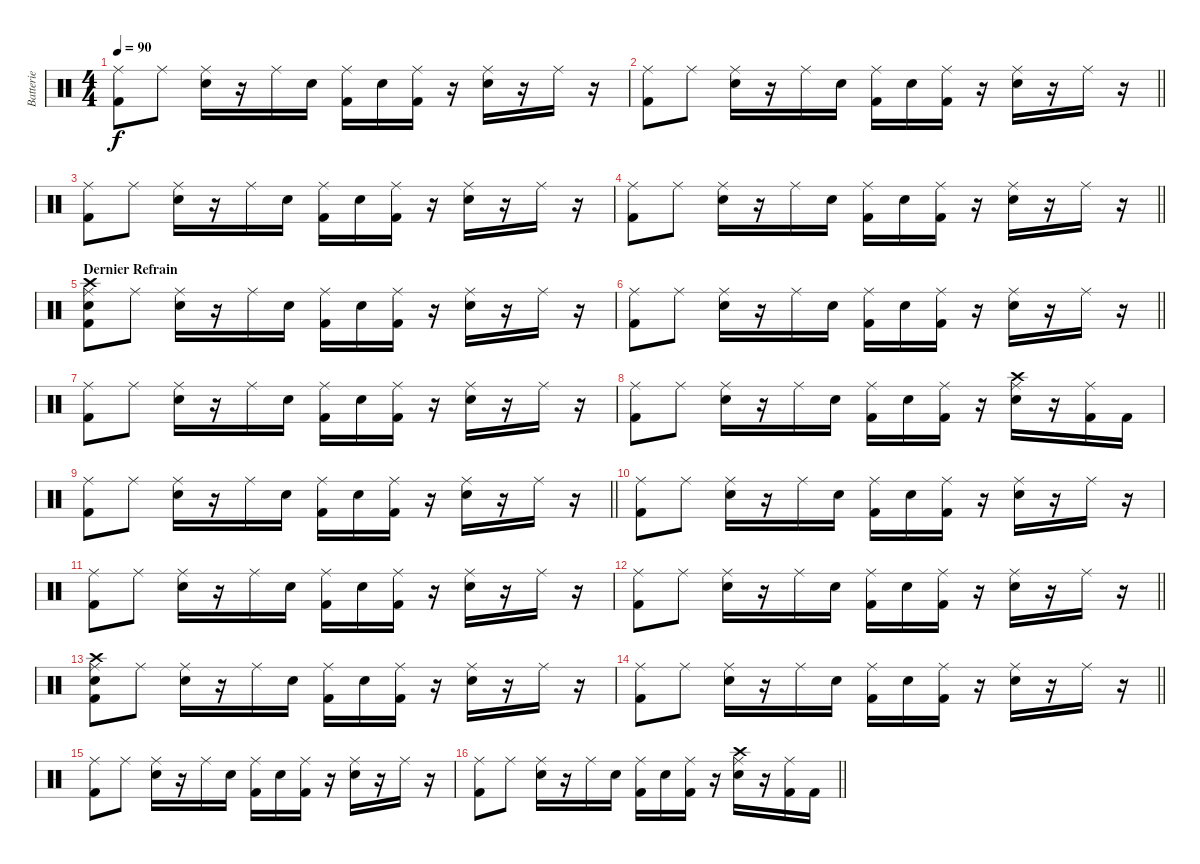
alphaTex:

\track ("Batterie" "Batterie") {instrument percussion}
\staff {score}
\articulation defaults
\ts (4 4)
\tempo 90
\clef neutral
\ks c
("Ride (middle)" "Kick (hit) 2").8{dy f} "Ride (middle)".8 ("Ride (middle)" "Electric Snare (hit)").16 r.16 "Ride (middle)".16 "Electric Snare (hit)".16 ("Ride (middle)" "Kick (hit) 2").16 "Electric Snare (hit)".16 ("Ride (middle)" "Kick (hit) 2").16 r.16 ("Ride (middle)" "Electric Snare (hit)").16 r.16 "Ride (middle)".16 r.16 |
\barLineRight lightlight
("Ride (middle)" "Kick (hit) 2").8 "Ride (middle)".8 ("Ride (middle)" "Electric Snare (hit)").16 r.16 "Ride (middle)".16 "Electric Snare (hit)".16 ("Ride (middle)" "Kick (hit) 2").16 "Electric Snare (hit)".16 ("Ride (middle)" "Kick (hit) 2").16 r.16 ("Ride (middle)" "Electric Snare (hit)").16 r.16 "Ride (middle)".16 r.16 |
("Ride (middle)" "Kick (hit) 2").8 "Ride (middle)".8 ("Ride (middle)" "Electric Snare (hit)").16 r.16 "Ride (middle)".16 "Electric Snare (hit)".16 ("Ride (middle)" "Kick (hit) 2").16 "Electric Snare (hit)".16 ("Ride (middle)" "Kick (hit) 2").16 r.16 ("Ride (middle)" "Electric Snare (hit)").16 r.16 "Ride (middle)".16 r.16 |
\barLineRight lightlight
("Ride (middle)" "Kick (hit) 2").8 "Ride (middle)".8 ("Ride (middle)" "Electric Snare (hit)").16 r.16 "Ride (middle)".16 "Electric Snare (hit)".16 ("Ride (middle)" "Kick (hit) 2").16 "Electric Snare (hit)".16 ("Ride (middle)" "Kick (hit) 2").16 r.16 ("Ride (middle)" "Electric Snare (hit)").16 r.16 "Ride (middle)".16 r.16 |
\section ("" "Dernier Refrain")
("Crash high (hit)" "Ride (middle)" "Electric Snare (hit)" "Kick (hit) 2").8 "Ride (middle)".8 ("Ride (middle)" "Electric Snare (hit)").16 r.16 "Ride (middle)".16 "Electric Snare (hit)".16 ("Ride (middle)" "Kick (hit) 2").16 "Electric Snare (hit)".16 ("Ride (middle)" "Kick (hit) 2").16 r.16 ("Ride (middle)" "Electric Snare (hit)").16 r.16 "Ride (middle)".16 r.16 |
\barLineRight lightlight
("Ride (middle)" "Kick (hit) 2").8 "Ride (middle)".8 ("Ride (middle)" "Electric Snare (hit)").16 r.16 "Ride (middle)".16 "Electric Snare (hit)".16 ("Ride (middle)" "Kick (hit) 2").16 "Electric Snare (hit)".16 ("Ride (middle)" "Kick (hit) 2").16 r.16 ("Ride (middle)" "Electric Snare (hit)").16 r.16 "Ride (middle)".16 r.16 |
("Ride (middle)" "Kick (hit) 2").8 "Ride (middle)".8 ("Ride (middle)" "Electric Snare (hit)").16 r.16 "Ride (middle)".16 "Electric Snare (hit)".16 ("Ride (middle)" "Kick (hit) 2").16 "Electric Snare (hit)".16 ("Ride (middle)" "Kick (hit) 2").16 r.16 ("Ride (middle)" "Electric Snare (hit)").16 r.16 "Ride (middle)".16 r.16 |
("Ride (middle)" "Kick (hit) 2").8 "Ride (middle)".8 ("Ride (middle)" "Electric Snare (hit)").16 r.16 "Ride (middle)".16 "Electric Snare (hit)".16 ("Ride (middle)" "Kick (hit) 2").16 "Electric Snare (hit)".16 ("Ride (middle)" "Kick (hit) 2").16 r.16 ("Ride (middle)" "Crash high (hit)" "Electric Snare (hit)").16 r.16 ("Ride (middle)" "Kick (hit) 2").16 "Kick (hit) 2".16 |
\barLineRight lightlight
("Ride (middle)" "Kick (hit) 2").8 "Ride (middle)".8 ("Ride (middle)" "Electric Snare (hit)").16 r.16 "Ride (middle)".16 "Electric Snare (hit)".16 ("Ride (middle)" "Kick (hit) 2").16 "Electric Snare (hit)".16 ("Ride (middle)" "Kick (hit) 2").16 r.16 ("Ride (middle)" "Electric Snare (hit)").16 r.16 "Ride (middle)".16 r.16 |
("Ride (middle)" "Kick (hit) 2").8 "Ride (middle)".8 ("Ride (middle)" "Electric Snare (hit)").16 r.16 "Ride (middle)".16 "Electric Snare (hit)".16 ("Ride (middle)" "Kick (hit) 2").16 "Electric Snare (hit)".16 ("Ride (middle)" "Kick (hit) 2").16 r.16 ("Ride (middle)" "Electric Snare (hit)").16 r.16 "Ride (middle)".16 r.16 |
("Ride (middle)" "Kick (hit) 2").8 "Ride (middle)".8 ("Ride (middle)" "Electric Snare (hit)").16 r.16 "Ride (middle)".16 "Electric Snare (hit)".16 ("Ride (middle)" "Kick (hit) 2").16 "Electric Snare (hit)".16 ("Ride (middle)" "Kick (hit) 2").16 r.16 ("Ride (middle)" "Electric Snare (hit)").16 r.16 "Ride (middle)".16 r.16 |
\barLineRight lightlight
("Ride (middle)" "Kick (hit) 2").8 "Ride (middle)".8 ("Ride (middle)" "Electric Snare (hit)").16 r.16 "Ride (middle)".16 "Electric Snare (hit)".16 ("Ride (middle)" "Kick (hit) 2").16 "Electric Snare (hit)".16 ("Ride (middle)" "Kick (hit) 2").16 r.16 ("Ride (middle)" "Electric Snare (hit)").16 r.16 "Ride (middle)".16 r.16 |
("Crash high (hit)" "Ride (middle)" "Electric Snare (hit)" "Kick (hit) 2").8 "Ride (middle)".8 ("Ride (middle)" "Electric Snare (hit)").16 r.16 "Ride (middle)".16 "Electric Snare (hit)".16 ("Ride (middle)" "Kick (hit) 2").16 "Electric Snare (hit)".16 ("Ride (middle)" "Kick (hit) 2").16 r.16 ("Ride (middle)" "Electric Snare (hit)").16 r.16 "Ride (middle)".16 r.16 |
\barLineRight lightlight
("Ride (middle)" "Kick (hit) 2").8 "Ride (middle)".8 ("Ride (middle)" "Electric Snare (hit)").16 r.16 "Ride (middle)".16 "Electric Snare (hit)".16 ("Ride (middle)" "Kick (hit) 2").16 "Electric Snare (hit)".16 ("Ride (middle)" "Kick (hit) 2").16 r.16 ("Ride (middle)" "Electric Snare (hit)").16 r.16 "Ride (middle)".16 r.16 |
("Ride (middle)" "Kick (hit) 2").8 "Ride (middle)".8 ("Ride (middle)" "Electric Snare (hit)").16 r.16 "Ride (middle)".16 "Electric Snare (hit)".16 ("Ride (middle)" "Kick (hit) 2").16 "Electric Snare (hit)".16 ("Ride (middle)" "Kick (hit) 2").16 r.16 ("Ride (middle)" "Electric Snare (hit)").16 r.16 "Ride (middle)".16 r.16 |
\barLineRight lightlight
("Ride (middle)" "Kick (hit) 2").8 "Ride (middle)".8 ("Ride (middle)" "Electric Snare (hit)").16 r.16 "Ride (middle)".16 "Electric Snare (hit)".16 ("Ride (middle)" "Kick (hit) 2").16 "Electric Snare (hit)".16 ("Ride (middle)" "Kick (hit) 2").16 r.16 ("Ride (middle)" "Crash high (hit)" "Electric Snare (hit)").16 r.16 ("Ride (middle)" "Kick (hit) 2").16 "Kick (hit) 2".16
